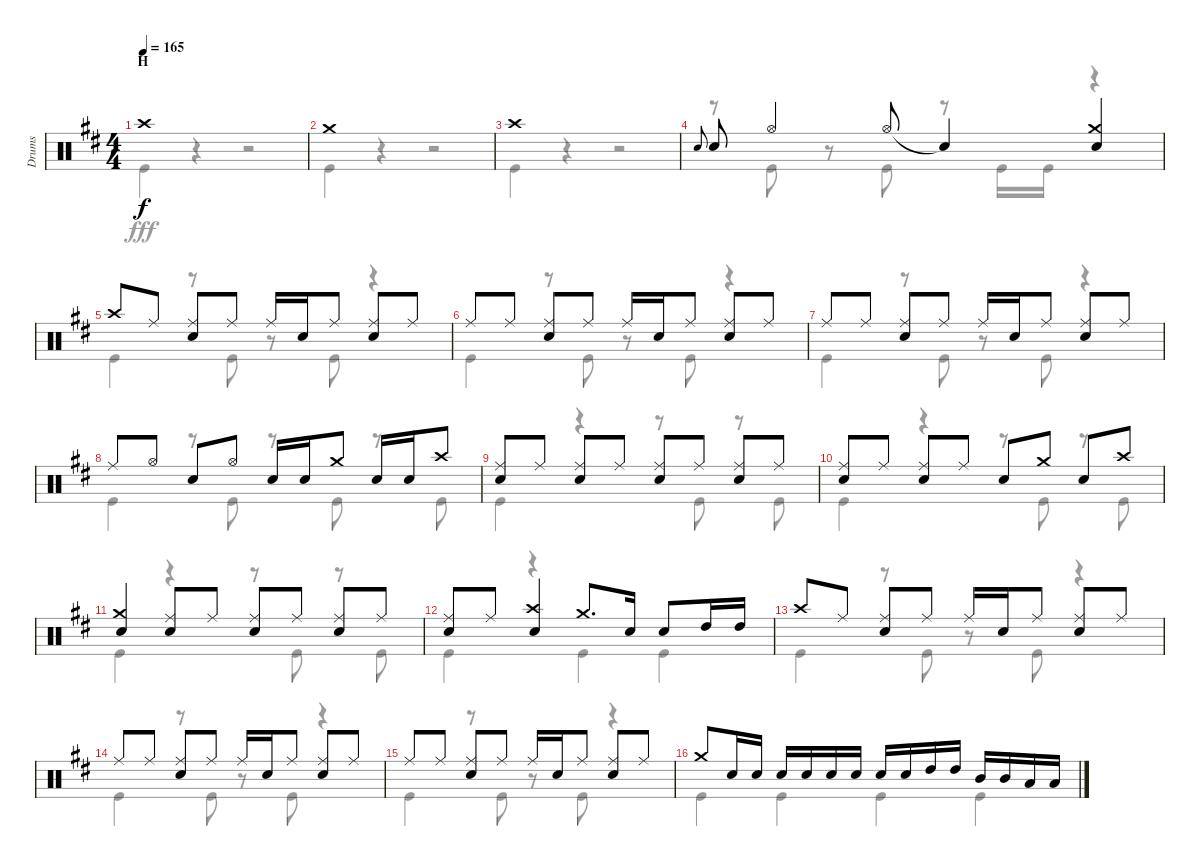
\track ("Drums" "Drums") {instrument percussion}
\staff {score}
\articulation defaults
\voice
\ts (4 4)
\section ("" "H")
\tempo 165
\clef neutral
\ks d "Crash high (hit)".1{dy f}
|
"Crash medium (hit)".1 |
"Crash high (hit)".1 |
"Snare (hit) 2".8{gr onbeat} "Snare (hit) 2".8 "Hi-Hat (open)".4 "Hi-Hat (open)".8 "Snare (hit)"{t}.4 ("Crash medium (hit)" "Snare (hit) 2").4 |
"Crash high (hit)".8 "Ride (middle)".8 ("Ride (middle)" "Snare (hit) 2").8 "Ride (middle)".8 "Ride (middle)".16 "Snare (hit) 2".16 "Ride (middle)".8 ("Ride (middle)" "Snare (hit) 2").8 "Ride (middle)".8 |
"Ride (middle)".8 "Ride (middle)".8 ("Ride (middle)" "Snare (hit) 2").8 "Ride (middle)".8 "Ride (middle)".16 "Snare (hit) 2".16 "Ride (middle)".8 ("Ride (middle)" "Snare (hit) 2").8 "Ride (middle)".8 |
"Ride (middle)".8 "Ride (middle)".8 ("Ride (middle)" "Snare (hit) 2").8 "Ride (middle)".8 "Ride (middle)".16 "Snare (hit) 2".16 "Ride (middle)".8 ("Ride (middle)" "Snare (hit) 2").8 "Ride (middle)".8 |
"Ride (middle)".8 "Hi-Hat (open)".8 "Snare (hit) 2".8 "Hi-Hat (open)".8 "Snare (hit) 2".16 "Snare (hit) 2".16 "Crash medium (hit)".8 "Snare (hit) 2".16 "Snare (hit) 2".16 "Crash high (hit)".8 |
("Ride (middle)" "Snare (hit) 2").8 "Ride (middle)".8 ("Ride (middle)" "Snare (hit) 2").8 "Ride (middle)".8 ("Ride (middle)" "Snare (hit) 2").8 "Ride (middle)".8 ("Ride (middle)" "Snare (hit) 2").8 "Ride (middle)".8 |
("Ride (middle)" "Snare (hit) 2").8 "Ride (middle)".8 ("Ride (middle)" "Snare (hit) 2").8 "Ride (middle)".8 "Snare (hit) 2".8 "Crash medium (hit)".8 "Snare (hit) 2".8 "Crash high (hit)".8 |
("Crash medium (hit)" "Snare (hit) 2").4 ("Ride (middle)" "Snare (hit) 2").8 "Ride (middle)".8 ("Ride (middle)" "Snare (hit) 2").8 "Ride (middle)".8 ("Ride (middle)" "Snare (hit) 2").8 "Ride (middle)".8 |
("Ride (middle)" "Snare (hit) 2").8 "Ride (middle)".8 ("Crash high (hit)" "Snare (hit) 2").4 "Crash medium (hit)".8{d} "Snare (hit) 2".16 "Snare (hit) 2".8 "High Tom (hit)".16 "High Tom (hit)".16 |
"Crash high (hit)".8 "Ride (middle)".8 ("Ride (middle)" "Snare (hit) 2").8 "Ride (middle)".8 "Ride (middle)".16 "Snare (hit) 2".16 "Ride (middle)".8 ("Ride (middle)" "Snare (hit) 2").8 "Ride (middle)".8 |
"Ride (middle)".8 "Ride (middle)".8 ("Ride (middle)" "Snare (hit) 2").8 "Ride (middle)".8 "Ride (middle)".16 "Snare (hit) 2".16 "Ride (middle)".8 ("Ride (middle)" "Snare (hit) 2").8 "Ride (middle)".8 |
"Ride (middle)".8 "Ride (middle)".8 ("Ride (middle)" "Snare (hit) 2").8 "Ride (middle)".8 "Ride (middle)".16 "Snare (hit) 2".16 "Ride (middle)".8 ("Ride (middle)" "Snare (hit) 2").8 "Ride (middle)".8 |
"Crash medium (hit)".8 "Snare (hit) 2".16 "Snare (hit) 2".16 "Snare (hit) 2".16 "Snare (hit) 2".16 "Snare (hit) 2".16 "Snare (hit) 2".16 "Snare (hit) 2".16 "Snare (hit) 2".16 "High Tom (hit)".16 "High Tom (hit)".16 "Mid Tom (hit)".16 "Mid Tom (hit)".16 "Low Tom (hit)".16 "Low Tom (hit)".16
\voice
\clef neutral
\ottava regular
\simile none
\ks d "Kick (hit)".4{dy fff}
r.4 r.2 |
"Kick (hit)".4 r.4 r.2 |
"Kick (hit)".4 r.4 r.2 |
r.8 "Kick (hit)".8 r.8 "Kick (hit)".8 r.8 "Kick (hit)".16 "Kick (hit)".16 r.4 |
"Kick (hit)".4 r.8 "Kick (hit)".8 r.8 "Kick (hit)".8 r.4 |
"Kick (hit)".4 r.8 "Kick (hit)".8 r.8 "Kick (hit)".8 r.4 |
"Kick (hit)".4 r.8 "Kick (hit)".8 r.8 "Kick (hit)".8 r.4 |
"Kick (hit)".4 r.8 "Kick (hit)".8 r.8 "Kick (hit)".8 r.8 "Kick (hit)".8 |
"Kick (hit)".4 r.4 r.8 "Kick (hit)".8 r.8 "Kick (hit)".8 |
"Kick (hit)".4 r.4 r.8 "Kick (hit)".8 r.8 "Kick (hit)".8 |
"Kick (hit)".4 r.4 r.8 "Kick (hit)".8 r.8 "Kick (hit)".8 |
"Kick (hit)".4 r.4 "Kick (hit)".4 "Kick (hit)".4 |
"Kick (hit)".4 r.8 "Kick (hit)".8 r.8 "Kick (hit)".8 r.4 |
"Kick (hit)".4 r.8 "Kick (hit)".8 r.8 "Kick (hit)".8 r.4 |
"Kick (hit)".4 r.8 "Kick (hit)".8 r.8 "Kick (hit)".8 r.4 |
"Kick (hit)".4 "Kick (hit)".4 "Kick (hit)".4 "Kick (hit)".4
